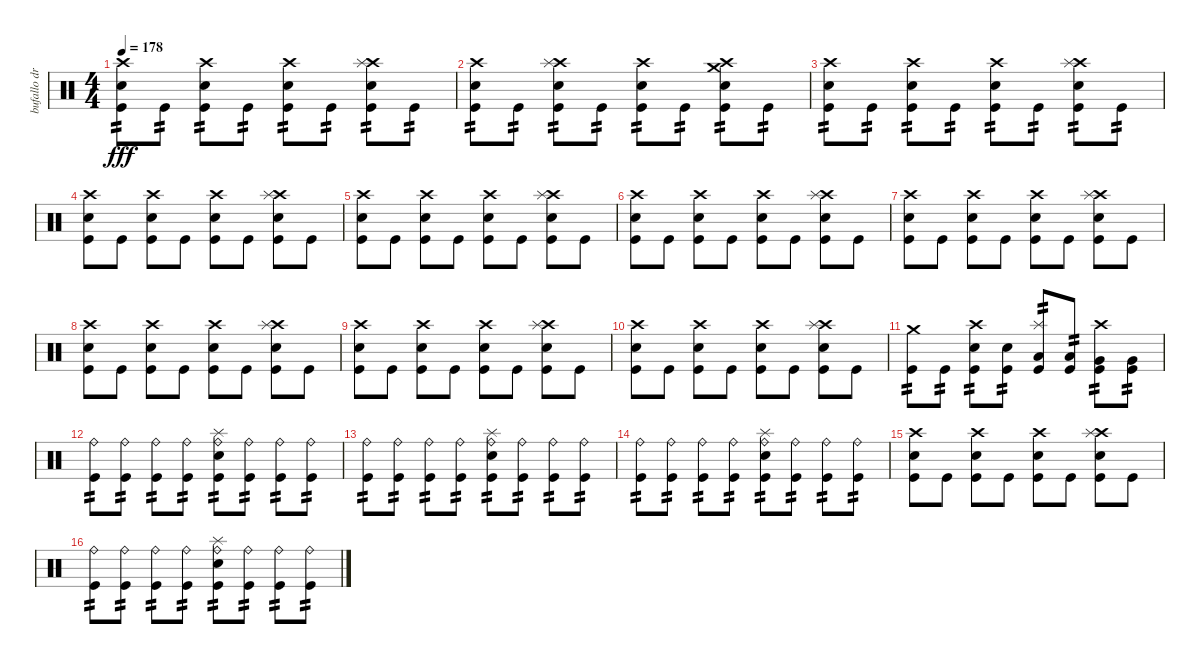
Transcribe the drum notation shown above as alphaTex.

\track ("bufallo drums" "bufallo dr") {instrument percussion}
\staff {score}
\articulation defaults
\ts (4 4)
\tempo 178
\clef neutral
\ks c
("Crash high (hit)" "Electric Snare (hit)" "Kick (hit)").8{tp 2 dy fff} "Kick (hit)".8{tp 2} ("Crash high (hit)" "Electric Snare (hit)" "Kick (hit)").8{tp 2} "Kick (hit)".8{tp 2} ("Crash high (hit)" "Electric Snare (hit)" "Kick (hit)").8{tp 2} "Kick (hit)".8{tp 2} ("Crash high (hit)" "Splash (hit)" "Electric Snare (hit)" "Kick (hit)").8{tp 2} "Kick (hit)".8{tp 2} |
("Crash high (hit)" "Electric Snare (hit)" "Kick (hit)").8{tp 2} "Kick (hit)".8{tp 2} ("Crash high (hit)" "Splash (hit)" "Electric Snare (hit)" "Kick (hit)").8{tp 2} "Kick (hit)".8{tp 2} ("Crash high (hit)" "Electric Snare (hit)" "Kick (hit)").8{tp 2} "Kick (hit)".8{tp 2} ("Crash high (hit)" "Crash medium (hit)" "Electric Snare (hit)" "Kick (hit)").8{tp 2} "Kick (hit)".8{tp 2} |
("Crash high (hit)" "Electric Snare (hit)" "Kick (hit)").8{tp 2} "Kick (hit)".8{tp 2} ("Crash high (hit)" "Electric Snare (hit)" "Kick (hit)").8{tp 2} "Kick (hit)".8{tp 2} ("Crash high (hit)" "Electric Snare (hit)" "Kick (hit)").8{tp 2} "Kick (hit)".8{tp 2} ("Crash high (hit)" "Splash (hit)" "Electric Snare (hit)" "Kick (hit)").8{tp 2} "Kick (hit)".8{tp 2} |
("Crash high (hit)" "Electric Snare (hit)" "Kick (hit)").8 "Kick (hit)".8 ("Crash high (hit)" "Electric Snare (hit)" "Kick (hit)").8 "Kick (hit)".8 ("Crash high (hit)" "Electric Snare (hit)" "Kick (hit)").8 "Kick (hit)".8 ("Crash high (hit)" "Splash (hit)" "Electric Snare (hit)" "Kick (hit)").8 "Kick (hit)".8 |
("Crash high (hit)" "Electric Snare (hit)" "Kick (hit)").8 "Kick (hit)".8 ("Crash high (hit)" "Electric Snare (hit)" "Kick (hit)").8 "Kick (hit)".8 ("Crash high (hit)" "Electric Snare (hit)" "Kick (hit)").8 "Kick (hit)".8 ("Crash high (hit)" "Splash (hit)" "Electric Snare (hit)" "Kick (hit)").8 "Kick (hit)".8 |
("Crash high (hit)" "Electric Snare (hit)" "Kick (hit)").8 "Kick (hit)".8 ("Crash high (hit)" "Electric Snare (hit)" "Kick (hit)").8 "Kick (hit)".8 ("Crash high (hit)" "Electric Snare (hit)" "Kick (hit)").8 "Kick (hit)".8 ("Crash high (hit)" "Splash (hit)" "Electric Snare (hit)" "Kick (hit)").8 "Kick (hit)".8 |
("Crash high (hit)" "Electric Snare (hit)" "Kick (hit)").8 "Kick (hit)".8 ("Crash high (hit)" "Electric Snare (hit)" "Kick (hit)").8 "Kick (hit)".8 ("Crash high (hit)" "Electric Snare (hit)" "Kick (hit)").8 "Kick (hit)".8 ("Crash high (hit)" "Splash (hit)" "Electric Snare (hit)" "Kick (hit)").8 "Kick (hit)".8 |
("Crash high (hit)" "Electric Snare (hit)" "Kick (hit)").8 "Kick (hit)".8 ("Crash high (hit)" "Electric Snare (hit)" "Kick (hit)").8 "Kick (hit)".8 ("Crash high (hit)" "Electric Snare (hit)" "Kick (hit)").8 "Kick (hit)".8 ("Crash high (hit)" "Splash (hit)" "Electric Snare (hit)" "Kick (hit)").8 "Kick (hit)".8 |
("Crash high (hit)" "Electric Snare (hit)" "Kick (hit)").8 "Kick (hit)".8 ("Crash high (hit)" "Electric Snare (hit)" "Kick (hit)").8 "Kick (hit)".8 ("Crash high (hit)" "Electric Snare (hit)" "Kick (hit)").8 "Kick (hit)".8 ("Crash high (hit)" "Splash (hit)" "Electric Snare (hit)" "Kick (hit)").8 "Kick (hit)".8 |
("Crash high (hit)" "Electric Snare (hit)" "Kick (hit)").8 "Kick (hit)".8 ("Crash high (hit)" "Electric Snare (hit)" "Kick (hit)").8 "Kick (hit)".8 ("Crash high (hit)" "Electric Snare (hit)" "Kick (hit)").8 "Kick (hit)".8 ("Crash high (hit)" "Splash (hit)" "Electric Snare (hit)" "Kick (hit)").8 "Kick (hit)".8 |
("Crash medium (hit)" "Kick (hit)").8{tp 2} "Kick (hit)".8{tp 2} ("Crash high (hit)" "Electric Snare (hit)" "Kick (hit)").8{tp 2} ("Electric Snare (hit)" "Kick (hit)").8{tp 2} ("Splash (hit)" "Low Tom (hit)" "Kick (hit)").8{tp 2} ("Low Tom (hit)" "Kick (hit)").8{tp 2} ("Crash high (hit)" "Very Low Tom (hit)" "Kick (hit)").8{tp 2} ("Very Low Tom (hit)" "Kick (hit)").8{tp 2} |
("Ride (bell)" "Kick (hit)").8{tp 2} ("Ride (bell)" "Kick (hit)").8{tp 2} ("Ride (bell)" "Kick (hit)").8{tp 2} ("Ride (bell)" "Kick (hit)").8{tp 2} ("Ride (bell)" "Splash (hit)" "Electric Snare (hit)" "Kick (hit)").8{tp 2} ("Ride (bell)" "Kick (hit)").8{tp 2} ("Ride (bell)" "Kick (hit)").8{tp 2} ("Ride (bell)" "Kick (hit)").8{tp 2} |
("Ride (bell)" "Kick (hit)").8{tp 2} ("Ride (bell)" "Kick (hit)").8{tp 2} ("Ride (bell)" "Kick (hit)").8{tp 2} ("Ride (bell)" "Kick (hit)").8{tp 2} ("Ride (bell)" "Splash (hit)" "Electric Snare (hit)" "Kick (hit)").8{tp 2} ("Ride (bell)" "Kick (hit)").8{tp 2} ("Ride (bell)" "Kick (hit)").8{tp 2} ("Ride (bell)" "Kick (hit)").8{tp 2} |
("Ride (bell)" "Kick (hit)").8{tp 2} ("Ride (bell)" "Kick (hit)").8{tp 2} ("Ride (bell)" "Kick (hit)").8{tp 2} ("Ride (bell)" "Kick (hit)").8{tp 2} ("Ride (bell)" "Splash (hit)" "Electric Snare (hit)" "Kick (hit)").8{tp 2} ("Ride (bell)" "Kick (hit)").8{tp 2} ("Ride (bell)" "Kick (hit)").8{tp 2} ("Ride (bell)" "Kick (hit)").8{tp 2} |
("Crash high (hit)" "Electric Snare (hit)" "Kick (hit)").8 "Kick (hit)".8 ("Crash high (hit)" "Electric Snare (hit)" "Kick (hit)").8 "Kick (hit)".8 ("Crash high (hit)" "Electric Snare (hit)" "Kick (hit)").8 "Kick (hit)".8 ("Crash high (hit)" "Splash (hit)" "Electric Snare (hit)" "Kick (hit)").8 "Kick (hit)".8 |
("Ride (bell)" "Kick (hit)").8{tp 2} ("Ride (bell)" "Kick (hit)").8{tp 2} ("Ride (bell)" "Kick (hit)").8{tp 2} ("Ride (bell)" "Kick (hit)").8{tp 2} ("Ride (bell)" "Splash (hit)" "Electric Snare (hit)" "Kick (hit)").8{tp 2} ("Ride (bell)" "Kick (hit)").8{tp 2} ("Ride (bell)" "Kick (hit)").8{tp 2} ("Ride (bell)" "Kick (hit)").8{tp 2}
